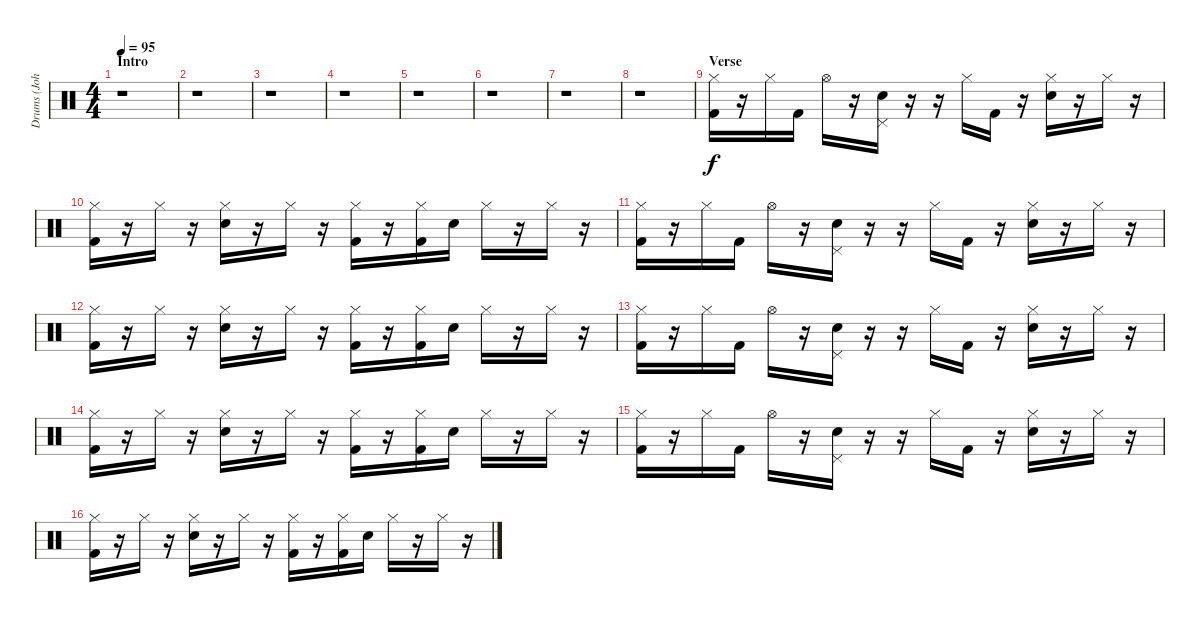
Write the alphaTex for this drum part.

\track ("Drums (John Otto)" "Drums (Joh") {instrument percussion}
\staff {score}
\articulation defaults
\ts (4 4)
\section ("" "Intro")
\tempo 95
\clef neutral
\ks c
r.1{dy f} |
r.1 |
r.1 |
r.1 |
r.1 |
r.1 |
r.1 |
r.1 |
\section ("" "Verse")
("Hi-Hat (closed)" "Kick (hit) 2").16 r.16 "Hi-Hat (closed)".16 "Kick (hit) 2".16 "Hi-Hat (open)".16 r.16 ("Pedal Hi-Hat (hit)" "Electric Snare (hit)").16 r.16 r.16 "Hi-Hat (closed)".16 "Kick (hit) 2".16 r.16 ("Hi-Hat (closed)" "Electric Snare (hit)").16 r.16 "Hi-Hat (closed)".16 r.16 |
("Hi-Hat (closed)" "Kick (hit) 2").16 r.16 "Hi-Hat (closed)".16 r.16 ("Hi-Hat (closed)" "Electric Snare (hit)").16 r.16 "Hi-Hat (closed)".16 r.16 ("Hi-Hat (closed)" "Kick (hit) 2").16 r.16 ("Hi-Hat (closed)" "Kick (hit) 2").16 "Electric Snare (hit)".16 "Hi-Hat (closed)".16 r.16 "Hi-Hat (closed)".16 r.16 |
("Hi-Hat (closed)" "Kick (hit) 2").16 r.16 "Hi-Hat (closed)".16 "Kick (hit) 2".16 "Hi-Hat (open)".16 r.16 ("Pedal Hi-Hat (hit)" "Electric Snare (hit)").16 r.16 r.16 "Hi-Hat (closed)".16 "Kick (hit) 2".16 r.16 ("Hi-Hat (closed)" "Electric Snare (hit)").16 r.16 "Hi-Hat (closed)".16 r.16 |
("Hi-Hat (closed)" "Kick (hit) 2").16 r.16 "Hi-Hat (closed)".16 r.16 ("Hi-Hat (closed)" "Electric Snare (hit)").16 r.16 "Hi-Hat (closed)".16 r.16 ("Hi-Hat (closed)" "Kick (hit) 2").16 r.16 ("Hi-Hat (closed)" "Kick (hit) 2").16 "Electric Snare (hit)".16 "Hi-Hat (closed)".16 r.16 "Hi-Hat (closed)".16 r.16 |
("Hi-Hat (closed)" "Kick (hit) 2").16 r.16 "Hi-Hat (closed)".16 "Kick (hit) 2".16 "Hi-Hat (open)".16 r.16 ("Pedal Hi-Hat (hit)" "Electric Snare (hit)").16 r.16 r.16 "Hi-Hat (closed)".16 "Kick (hit) 2".16 r.16 ("Hi-Hat (closed)" "Electric Snare (hit)").16 r.16 "Hi-Hat (closed)".16 r.16 |
("Hi-Hat (closed)" "Kick (hit) 2").16 r.16 "Hi-Hat (closed)".16 r.16 ("Hi-Hat (closed)" "Electric Snare (hit)").16 r.16 "Hi-Hat (closed)".16 r.16 ("Hi-Hat (closed)" "Kick (hit) 2").16 r.16 ("Hi-Hat (closed)" "Kick (hit) 2").16 "Electric Snare (hit)".16 "Hi-Hat (closed)".16 r.16 "Hi-Hat (closed)".16 r.16 |
("Hi-Hat (closed)" "Kick (hit) 2").16 r.16 "Hi-Hat (closed)".16 "Kick (hit) 2".16 "Hi-Hat (open)".16 r.16 ("Pedal Hi-Hat (hit)" "Electric Snare (hit)").16 r.16 r.16 "Hi-Hat (closed)".16 "Kick (hit) 2".16 r.16 ("Hi-Hat (closed)" "Electric Snare (hit)").16 r.16 "Hi-Hat (closed)".16 r.16 |
("Hi-Hat (closed)" "Kick (hit) 2").16 r.16 "Hi-Hat (closed)".16 r.16 ("Hi-Hat (closed)" "Electric Snare (hit)").16 r.16 "Hi-Hat (closed)".16 r.16 ("Hi-Hat (closed)" "Kick (hit) 2").16 r.16 ("Hi-Hat (closed)" "Kick (hit) 2").16 "Electric Snare (hit)".16 "Hi-Hat (closed)".16 r.16 "Hi-Hat (closed)".16 r.16
